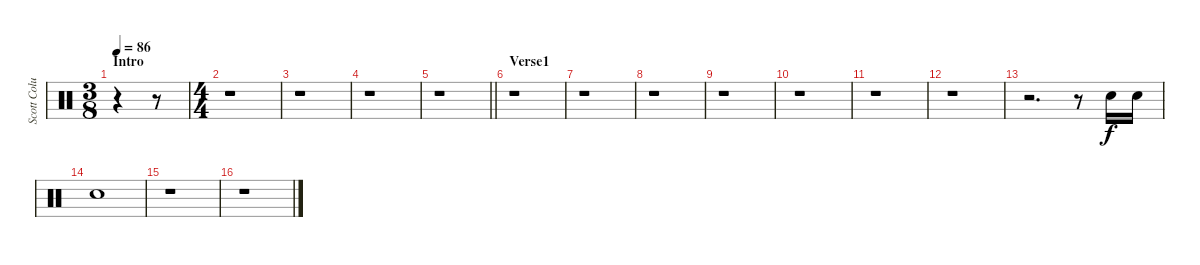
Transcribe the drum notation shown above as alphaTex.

\track ("Scott Columbus - Drums" "Scott Colu") {instrument percussion}
\staff {score}
\articulation defaults
\ts (3 8)
\section ("" "Intro")
\tempo 86
\clef neutral
\ks c
r.4{dy f} r.8 |
\ts (4 4)
r.1 |
r.1 |
r.1 |
\barLineRight lightlight
r.1 |
\section ("" "Verse1")
r.1 |
r.1 |
r.1 |
r.1 |
r.1 |
r.1 |
r.1 |
r.2{d} r.8 "Snare (hit) 2".16 "Snare (hit) 2".16 |
"Snare (hit) 2".1 |
r.1 |
r.1
